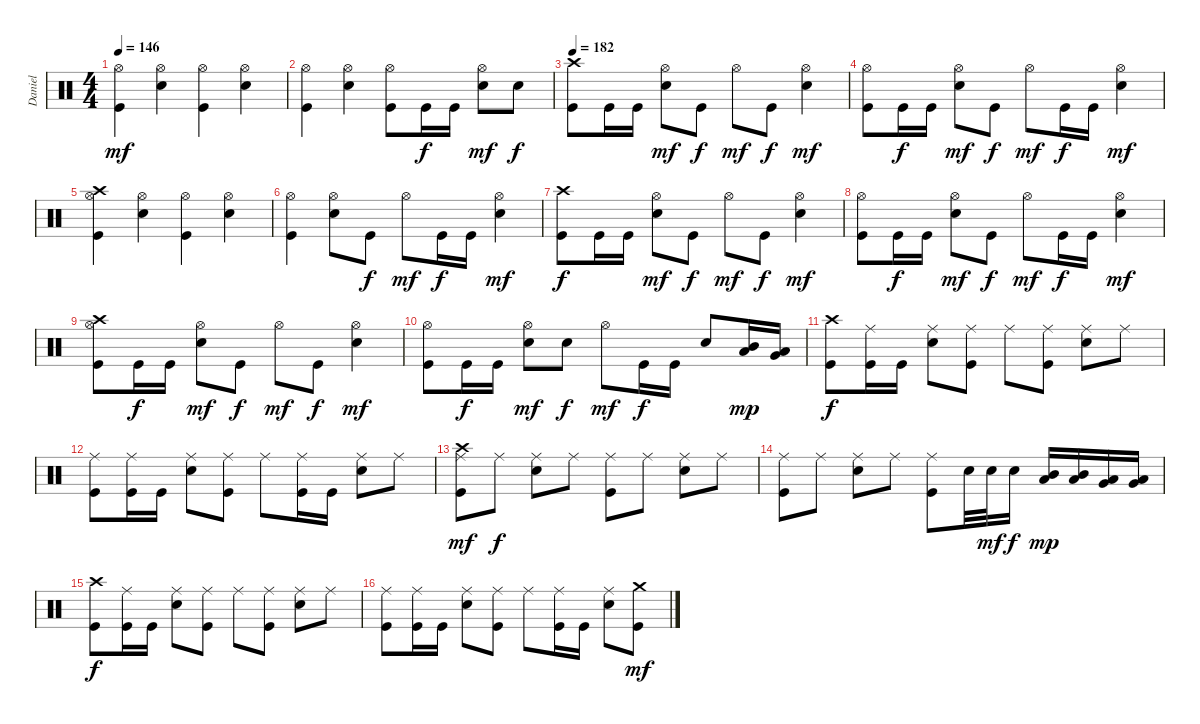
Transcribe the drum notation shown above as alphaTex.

\track ("Daniel" "Daniel") {instrument percussion}
\staff {score}
\articulation defaults
\ts (4 4)
\tempo 146
\clef neutral
\ks c
("Kick (hit)" "Hi-Hat (open)").4{dy mf} ("Electric Snare (hit)" "Hi-Hat (open)").4 ("Kick (hit)" "Hi-Hat (open)").4 ("Electric Snare (hit)" "Hi-Hat (open)").4 |
("Kick (hit)" "Hi-Hat (open)").4 ("Electric Snare (hit)" "Hi-Hat (open)").4 ("Kick (hit)" "Hi-Hat (open)").8 "Kick (hit)".16{dy f} "Kick (hit)".16 ("Electric Snare (hit)" "Hi-Hat (open)").8{dy mf} "Electric Snare (hit)".8{dy f} |
\tempo 182
("Kick (hit)" "Crash high (hit)").8 "Kick (hit)".16 "Kick (hit)".16 ("Electric Snare (hit)" "Hi-Hat (open)").8{dy mf} "Kick (hit)".8{dy f} "Hi-Hat (open)".8{dy mf} "Kick (hit)".8{dy f} ("Electric Snare (hit)" "Hi-Hat (open)").4{dy mf} |
("Kick (hit)" "Hi-Hat (open)").8 "Kick (hit)".16{dy f} "Kick (hit)".16 ("Electric Snare (hit)" "Hi-Hat (open)").8{dy mf} "Kick (hit)".8{dy f} "Hi-Hat (open)".8{dy mf} "Kick (hit)".16{dy f} "Kick (hit)".16 ("Electric Snare (hit)" "Hi-Hat (open)").4{dy mf} |
("Kick (hit)" "Hi-Hat (open)" "Crash high (hit)").4 ("Electric Snare (hit)" "Hi-Hat (open)").4 ("Kick (hit)" "Hi-Hat (open)").4 ("Electric Snare (hit)" "Hi-Hat (open)").4 |
("Kick (hit)" "Hi-Hat (open)").4 ("Electric Snare (hit)" "Hi-Hat (open)").8 "Kick (hit)".8{dy f} "Hi-Hat (open)".8{dy mf} "Kick (hit)".16{dy f} "Kick (hit)".16 ("Electric Snare (hit)" "Hi-Hat (open)").4{dy mf} |
("Kick (hit)" "Crash high (hit)").8{dy f} "Kick (hit)".16 "Kick (hit)".16 ("Electric Snare (hit)" "Hi-Hat (open)").8{dy mf} "Kick (hit)".8{dy f} "Hi-Hat (open)".8{dy mf} "Kick (hit)".8{dy f} ("Electric Snare (hit)" "Hi-Hat (open)").4{dy mf} |
("Kick (hit)" "Hi-Hat (open)").8 "Kick (hit)".16{dy f} "Kick (hit)".16 ("Electric Snare (hit)" "Hi-Hat (open)").8{dy mf} "Kick (hit)".8{dy f} "Hi-Hat (open)".8{dy mf} "Kick (hit)".16{dy f} "Kick (hit)".16 ("Electric Snare (hit)" "Hi-Hat (open)").4{dy mf} |
("Kick (hit)" "Hi-Hat (open)" "Crash high (hit)").8 "Kick (hit)".16{dy f} "Kick (hit)".16 ("Electric Snare (hit)" "Hi-Hat (open)").8{dy mf} "Kick (hit)".8{dy f} "Hi-Hat (open)".8{dy mf} "Kick (hit)".8{dy f} ("Electric Snare (hit)" "Hi-Hat (open)").4{dy mf} |
("Kick (hit)" "Hi-Hat (open)").8 "Kick (hit)".16{dy f} "Kick (hit)".16 ("Electric Snare (hit)" "Hi-Hat (open)").8{dy mf} "Electric Snare (hit)".8{dy f} "Hi-Hat (open)".8{dy mf} "Kick (hit)".16{dy f} "Kick (hit)".16 "Electric Snare (hit)".8 ("Low Tom (hit)" "Mid Tom (hit)").16{dy mp} ("Very Low Tom (hit)" "Low Tom (hit)").16 |
("Kick (hit)" "Crash high (hit)").8{dy f} ("Kick (hit)" "Ride (middle)").16 "Kick (hit)".16 ("Electric Snare (hit)" "Ride (middle)").8 ("Kick (hit)" "Ride (middle)").8 "Ride (middle)".8 ("Kick (hit)" "Ride (middle)").8 ("Electric Snare (hit)" "Ride (middle)").8 "Ride (middle)".8 |
("Kick (hit)" "Ride (middle)").8 ("Kick (hit)" "Ride (middle)").16 "Kick (hit)".16 ("Electric Snare (hit)" "Ride (middle)").8 ("Kick (hit)" "Ride (middle)").8 "Ride (middle)".8 ("Kick (hit)" "Ride (middle)").16 "Kick (hit)".16 ("Electric Snare (hit)" "Ride (middle)").8 "Ride (middle)".8 |
("Kick (hit)" "Ride (middle)" "Crash high (hit)").8{dy mf} "Ride (middle)".8{dy f} ("Electric Snare (hit)" "Ride (middle)").8 "Ride (middle)".8 ("Kick (hit)" "Ride (middle)").8 "Ride (middle)".8 ("Electric Snare (hit)" "Ride (middle)").8 "Ride (middle)".8 |
("Kick (hit)" "Ride (middle)").8 "Ride (middle)".8 ("Electric Snare (hit)" "Ride (middle)").8 "Ride (middle)".8 ("Kick (hit)" "Ride (middle)").8 "Electric Snare (hit)".32 "Electric Snare (hit)".32{dy mf} "Electric Snare (hit)".16{dy f} ("Low Tom (hit)" "Mid Tom (hit)").16{dy mp} ("Low Tom (hit)" "Mid Tom (hit)").16 ("Very Low Tom (hit)" "Low Tom (hit)").16 ("Very Low Tom (hit)" "Low Tom (hit)").16 |
("Kick (hit)" "Crash high (hit)").8{dy f} ("Kick (hit)" "Ride (middle)").16 "Kick (hit)".16 ("Electric Snare (hit)" "Ride (middle)").8 ("Kick (hit)" "Ride (middle)").8 "Ride (middle)".8 ("Kick (hit)" "Ride (middle)").8 ("Electric Snare (hit)" "Ride (middle)").8 "Ride (middle)".8 |
("Kick (hit)" "Ride (middle)").8 ("Kick (hit)" "Ride (middle)").16 "Kick (hit)".16 ("Electric Snare (hit)" "Ride (middle)").8 ("Kick (hit)" "Ride (middle)").8 "Ride (middle)".8 ("Kick (hit)" "Ride (middle)").16 "Kick (hit)".16 ("Electric Snare (hit)" "Ride (middle)").8 ("Kick (hit)" "Crash medium (hit)").8{dy mf}
